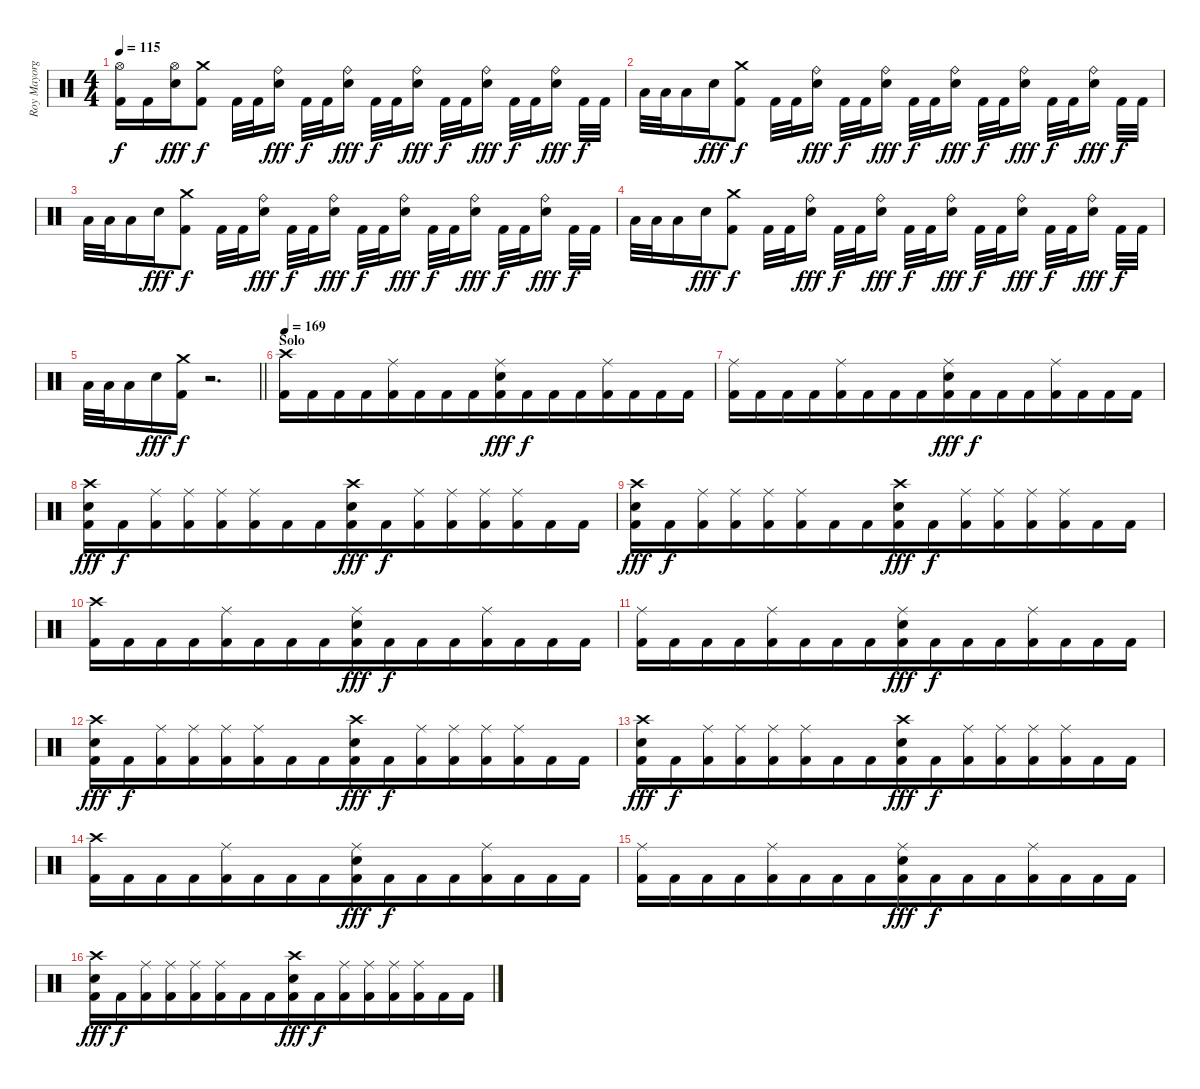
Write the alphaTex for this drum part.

\track ("Roy Mayorga" "Roy Mayorg") {instrument percussion}
\staff {score}
\articulation defaults
\ts (4 4)
\tempo 115
\clef neutral
\ks c
("Hi-Hat (open)" "Kick (hit) 2").16{dy f} "Kick (hit) 2".16 ("Hi-Hat (open)" "Electric Snare (hit)").16{dy fff} ("Crash medium (hit)" "Kick (hit) 2").8{dy f} "Kick (hit) 2".32 "Kick (hit) 2".32 ("Ride (bell)" "Electric Snare (hit)").16{dy fff beam split} "Kick (hit) 2".32{dy f} "Kick (hit) 2".32{beam merge} ("Ride (bell)" "Electric Snare (hit)").16{dy fff beam split} "Kick (hit) 2".32{dy f} "Kick (hit) 2".32 ("Ride (bell)" "Electric Snare (hit)").16{dy fff beam split} "Kick (hit) 2".32{dy f} "Kick (hit) 2".32{beam merge} ("Ride (bell)" "Electric Snare (hit)").16{dy fff beam split} "Kick (hit) 2".32{dy f} "Kick (hit) 2".32 ("Ride (bell)" "Electric Snare (hit)").16{dy fff beam split} "Kick (hit) 2".32{dy f beam Down} "Kick (hit) 2".32{beam Down} |
"Low Tom (hit)".32 "Low Tom (hit)".32 "Low Tom (hit)".16 "Electric Snare (hit)".16{dy fff} ("Crash medium (hit)" "Kick (hit) 2").8{dy f} "Kick (hit) 2".32 "Kick (hit) 2".32 ("Ride (bell)" "Electric Snare (hit)").16{dy fff beam split} "Kick (hit) 2".32{dy f} "Kick (hit) 2".32{beam merge} ("Ride (bell)" "Electric Snare (hit)").16{dy fff beam split} "Kick (hit) 2".32{dy f} "Kick (hit) 2".32 ("Ride (bell)" "Electric Snare (hit)").16{dy fff beam split} "Kick (hit) 2".32{dy f} "Kick (hit) 2".32{beam merge} ("Ride (bell)" "Electric Snare (hit)").16{dy fff beam split} "Kick (hit) 2".32{dy f} "Kick (hit) 2".32 ("Ride (bell)" "Electric Snare (hit)").16{dy fff beam split} "Kick (hit) 2".32{dy f beam Down} "Kick (hit) 2".32{beam Down} |
"Low Tom (hit)".32 "Low Tom (hit)".32 "Low Tom (hit)".16 "Electric Snare (hit)".16{dy fff} ("Crash medium (hit)" "Kick (hit) 2").8{dy f} "Kick (hit) 2".32 "Kick (hit) 2".32 ("Ride (bell)" "Electric Snare (hit)").16{dy fff beam split} "Kick (hit) 2".32{dy f} "Kick (hit) 2".32{beam merge} ("Ride (bell)" "Electric Snare (hit)").16{dy fff beam split} "Kick (hit) 2".32{dy f} "Kick (hit) 2".32 ("Ride (bell)" "Electric Snare (hit)").16{dy fff beam split} "Kick (hit) 2".32{dy f} "Kick (hit) 2".32{beam merge} ("Ride (bell)" "Electric Snare (hit)").16{dy fff beam split} "Kick (hit) 2".32{dy f} "Kick (hit) 2".32 ("Ride (bell)" "Electric Snare (hit)").16{dy fff beam split} "Kick (hit) 2".32{dy f beam Down} "Kick (hit) 2".32{beam Down} |
"Low Tom (hit)".32 "Low Tom (hit)".32 "Low Tom (hit)".16 "Electric Snare (hit)".16{dy fff} ("Crash medium (hit)" "Kick (hit) 2").8{dy f} "Kick (hit) 2".32 "Kick (hit) 2".32 ("Ride (bell)" "Electric Snare (hit)").16{dy fff beam split} "Kick (hit) 2".32{dy f} "Kick (hit) 2".32{beam merge} ("Ride (bell)" "Electric Snare (hit)").16{dy fff beam split} "Kick (hit) 2".32{dy f} "Kick (hit) 2".32 ("Ride (bell)" "Electric Snare (hit)").16{dy fff beam split} "Kick (hit) 2".32{dy f} "Kick (hit) 2".32{beam merge} ("Ride (bell)" "Electric Snare (hit)").16{dy fff beam split} "Kick (hit) 2".32{dy f} "Kick (hit) 2".32 ("Ride (bell)" "Electric Snare (hit)").16{dy fff beam split} "Kick (hit) 2".32{dy f beam Down} "Kick (hit) 2".32{beam Down} |
\barLineRight lightlight "Low Tom (hit)".32 "Low Tom (hit)".32 "Low Tom (hit)".16 "Electric Snare (hit)".16{dy fff}
("Crash medium (hit)" "Kick (hit) 2").16{dy f} r.2{d} |
\section ("" "Solo")
\tempo 169
("Crash high (hit)" "Kick (hit) 2").16 "Kick (hit) 2".16 "Kick (hit) 2".16 "Kick (hit) 2".16{beam merge} ("Ride (middle)" "Kick (hit) 2").16 "Kick (hit) 2".16 "Kick (hit) 2".16 "Kick (hit) 2".16{beam merge} ("Ride (middle)" "Electric Snare (hit)" "Kick (hit) 2").16{dy fff} "Kick (hit) 2".16{dy f} "Kick (hit) 2".16 "Kick (hit) 2".16{beam merge} ("Ride (middle)" "Kick (hit) 2").16 "Kick (hit) 2".16 "Kick (hit) 2".16 "Kick (hit) 2".16 |
("Ride (middle)" "Kick (hit) 2").16 "Kick (hit) 2".16 "Kick (hit) 2".16 "Kick (hit) 2".16{beam merge} ("Ride (middle)" "Kick (hit) 2").16 "Kick (hit) 2".16 "Kick (hit) 2".16 "Kick (hit) 2".16{beam merge} ("Ride (middle)" "Electric Snare (hit)" "Kick (hit) 2").16{dy fff} "Kick (hit) 2".16{dy f} "Kick (hit) 2".16 "Kick (hit) 2".16{beam merge} ("Ride (middle)" "Kick (hit) 2").16 "Kick (hit) 2".16 "Kick (hit) 2".16 "Kick (hit) 2".16 |
("Crash high (hit)" "Electric Snare (hit)" "Kick (hit) 2").16{dy fff} "Kick (hit) 2".16{dy f} ("Ride (middle)" "Kick (hit) 2").16 ("Ride (middle)" "Kick (hit) 2").16{beam merge} ("Ride (middle)" "Kick (hit) 2").16 ("Ride (middle)" "Kick (hit) 2").16 "Kick (hit) 2".16 "Kick (hit) 2".16{beam merge} ("Crash high (hit)" "Electric Snare (hit)" "Kick (hit) 2").16{dy fff} "Kick (hit) 2".16{dy f} ("Ride (middle)" "Kick (hit) 2").16 ("Ride (middle)" "Kick (hit) 2").16{beam merge} ("Ride (middle)" "Kick (hit) 2").16 ("Ride (middle)" "Kick (hit) 2").16 "Kick (hit) 2".16 "Kick (hit) 2".16 |
("Crash high (hit)" "Electric Snare (hit)" "Kick (hit) 2").16{dy fff} "Kick (hit) 2".16{dy f} ("Ride (middle)" "Kick (hit) 2").16 ("Ride (middle)" "Kick (hit) 2").16{beam merge} ("Ride (middle)" "Kick (hit) 2").16 ("Ride (middle)" "Kick (hit) 2").16 "Kick (hit) 2".16 "Kick (hit) 2".16{beam merge} ("Crash high (hit)" "Electric Snare (hit)" "Kick (hit) 2").16{dy fff} "Kick (hit) 2".16{dy f} ("Ride (middle)" "Kick (hit) 2").16 ("Ride (middle)" "Kick (hit) 2").16{beam merge} ("Ride (middle)" "Kick (hit) 2").16 ("Ride (middle)" "Kick (hit) 2").16 "Kick (hit) 2".16 "Kick (hit) 2".16 |
("Crash high (hit)" "Kick (hit) 2").16 "Kick (hit) 2".16{beam merge} "Kick (hit) 2".16{beam merge} "Kick (hit) 2".16{beam merge} ("Ride (middle)" "Kick (hit) 2").16{beam merge} "Kick (hit) 2".16{beam merge} "Kick (hit) 2".16{beam merge} "Kick (hit) 2".16{beam merge} ("Ride (middle)" "Electric Snare (hit)" "Kick (hit) 2").16{dy fff beam merge} "Kick (hit) 2".16{dy f beam merge} "Kick (hit) 2".16{beam merge} "Kick (hit) 2".16{beam merge} ("Ride (middle)" "Kick (hit) 2").16{beam merge} "Kick (hit) 2".16{beam merge} "Kick (hit) 2".16{beam merge} "Kick (hit) 2".16 |
("Ride (middle)" "Kick (hit) 2").16{beam merge} "Kick (hit) 2".16{beam merge} "Kick (hit) 2".16{beam merge} "Kick (hit) 2".16{beam merge} ("Ride (middle)" "Kick (hit) 2").16{beam merge} "Kick (hit) 2".16{beam merge} "Kick (hit) 2".16{beam merge} "Kick (hit) 2".16{beam merge} ("Ride (middle)" "Electric Snare (hit)" "Kick (hit) 2").16{dy fff beam merge} "Kick (hit) 2".16{dy f beam merge} "Kick (hit) 2".16{beam merge} "Kick (hit) 2".16{beam merge} ("Ride (middle)" "Kick (hit) 2").16 "Kick (hit) 2".16 "Kick (hit) 2".16 "Kick (hit) 2".16 |
("Crash high (hit)" "Electric Snare (hit)" "Kick (hit) 2").16{dy fff} "Kick (hit) 2".16{dy f} ("Ride (middle)" "Kick (hit) 2").16 ("Ride (middle)" "Kick (hit) 2").16{beam merge} ("Ride (middle)" "Kick (hit) 2").16 ("Ride (middle)" "Kick (hit) 2").16 "Kick (hit) 2".16 "Kick (hit) 2".16{beam merge} ("Crash high (hit)" "Electric Snare (hit)" "Kick (hit) 2").16{dy fff} "Kick (hit) 2".16{dy f} ("Ride (middle)" "Kick (hit) 2").16 ("Ride (middle)" "Kick (hit) 2").16{beam merge} ("Ride (middle)" "Kick (hit) 2").16 ("Ride (middle)" "Kick (hit) 2").16 "Kick (hit) 2".16 "Kick (hit) 2".16 |
("Crash high (hit)" "Electric Snare (hit)" "Kick (hit) 2").16{dy fff} "Kick (hit) 2".16{dy f} ("Ride (middle)" "Kick (hit) 2").16 ("Ride (middle)" "Kick (hit) 2").16{beam merge} ("Ride (middle)" "Kick (hit) 2").16 ("Ride (middle)" "Kick (hit) 2").16 "Kick (hit) 2".16 "Kick (hit) 2".16{beam merge} ("Crash high (hit)" "Electric Snare (hit)" "Kick (hit) 2").16{dy fff} "Kick (hit) 2".16{dy f} ("Ride (middle)" "Kick (hit) 2").16 ("Ride (middle)" "Kick (hit) 2").16{beam merge} ("Ride (middle)" "Kick (hit) 2").16 ("Ride (middle)" "Kick (hit) 2").16 "Kick (hit) 2".16 "Kick (hit) 2".16 |
("Crash high (hit)" "Kick (hit) 2").16 "Kick (hit) 2".16 "Kick (hit) 2".16 "Kick (hit) 2".16{beam merge} ("Ride (middle)" "Kick (hit) 2").16 "Kick (hit) 2".16 "Kick (hit) 2".16 "Kick (hit) 2".16{beam merge} ("Ride (middle)" "Electric Snare (hit)" "Kick (hit) 2").16{dy fff} "Kick (hit) 2".16{dy f} "Kick (hit) 2".16 "Kick (hit) 2".16{beam merge} ("Ride (middle)" "Kick (hit) 2").16 "Kick (hit) 2".16 "Kick (hit) 2".16 "Kick (hit) 2".16 |
("Ride (middle)" "Kick (hit) 2").16 "Kick (hit) 2".16 "Kick (hit) 2".16 "Kick (hit) 2".16{beam merge} ("Ride (middle)" "Kick (hit) 2").16 "Kick (hit) 2".16 "Kick (hit) 2".16 "Kick (hit) 2".16{beam merge} ("Ride (middle)" "Electric Snare (hit)" "Kick (hit) 2").16{dy fff} "Kick (hit) 2".16{dy f} "Kick (hit) 2".16 "Kick (hit) 2".16{beam merge} ("Ride (middle)" "Kick (hit) 2").16 "Kick (hit) 2".16 "Kick (hit) 2".16 "Kick (hit) 2".16 |
("Crash high (hit)" "Electric Snare (hit)" "Kick (hit) 2").16{dy fff} "Kick (hit) 2".16{dy f} ("Ride (middle)" "Kick (hit) 2").16 ("Ride (middle)" "Kick (hit) 2").16{beam merge} ("Ride (middle)" "Kick (hit) 2").16 ("Ride (middle)" "Kick (hit) 2").16 "Kick (hit) 2".16 "Kick (hit) 2".16{beam merge} ("Crash high (hit)" "Electric Snare (hit)" "Kick (hit) 2").16{dy fff} "Kick (hit) 2".16{dy f} ("Ride (middle)" "Kick (hit) 2").16 ("Ride (middle)" "Kick (hit) 2").16{beam merge} ("Ride (middle)" "Kick (hit) 2").16 ("Ride (middle)" "Kick (hit) 2").16 "Kick (hit) 2".16 "Kick (hit) 2".16
